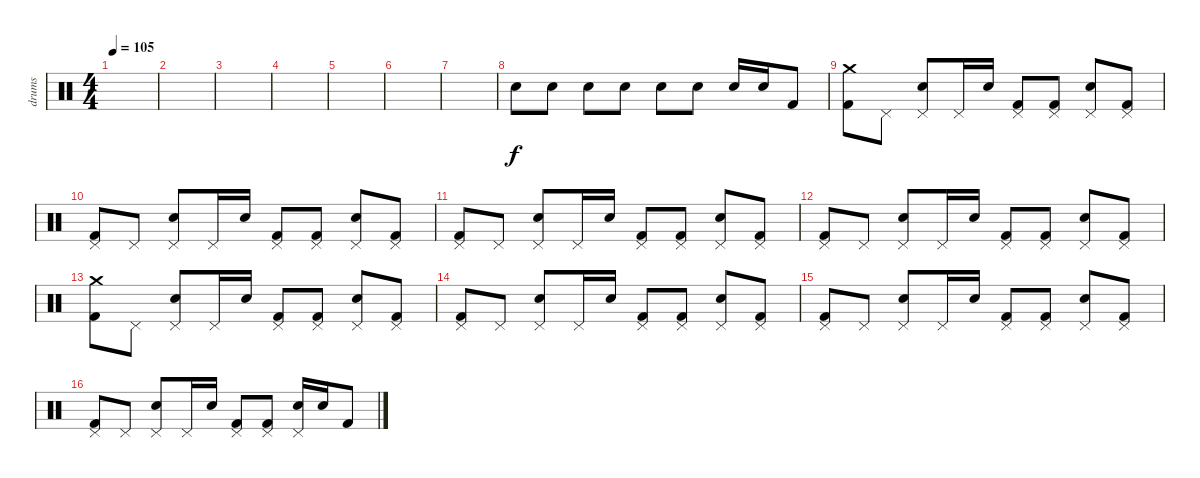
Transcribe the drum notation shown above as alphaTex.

\track ("drums" "drums") {instrument percussion}
\staff {score}
\articulation defaults
\ts (4 4)
\tempo 105
\clef neutral
\ks c
|
|
|
|
|
|
|
"Electric Snare (hit)".8 "Electric Snare (hit)".8 "Electric Snare (hit)".8 "Electric Snare (hit)".8 "Electric Snare (hit)".8 "Electric Snare (hit)".8 "Electric Snare (hit)".16 "Electric Snare (hit)".16 "Kick (hit) 2".8 |
("Crash medium (hit)" "Kick (hit) 2").8 "Pedal Hi-Hat (hit)".8 ("Pedal Hi-Hat (hit)" "Electric Snare (hit)").8 "Pedal Hi-Hat (hit)".16 "Electric Snare (hit)".16 ("Pedal Hi-Hat (hit)" "Kick (hit) 2").8 ("Pedal Hi-Hat (hit)" "Kick (hit) 2").8 ("Pedal Hi-Hat (hit)" "Electric Snare (hit)").8 ("Pedal Hi-Hat (hit)" "Kick (hit) 2").8 |
("Pedal Hi-Hat (hit)" "Kick (hit) 2").8 "Pedal Hi-Hat (hit)".8 ("Pedal Hi-Hat (hit)" "Electric Snare (hit)").8 "Pedal Hi-Hat (hit)".16 "Electric Snare (hit)".16 ("Pedal Hi-Hat (hit)" "Kick (hit) 2").8 ("Pedal Hi-Hat (hit)" "Kick (hit) 2").8 ("Pedal Hi-Hat (hit)" "Electric Snare (hit)").8 ("Pedal Hi-Hat (hit)" "Kick (hit) 2").8 |
("Pedal Hi-Hat (hit)" "Kick (hit) 2").8 "Pedal Hi-Hat (hit)".8 ("Pedal Hi-Hat (hit)" "Electric Snare (hit)").8 "Pedal Hi-Hat (hit)".16 "Electric Snare (hit)".16 ("Pedal Hi-Hat (hit)" "Kick (hit) 2").8 ("Pedal Hi-Hat (hit)" "Kick (hit) 2").8 ("Pedal Hi-Hat (hit)" "Electric Snare (hit)").8 ("Pedal Hi-Hat (hit)" "Kick (hit) 2").8 |
("Pedal Hi-Hat (hit)" "Kick (hit) 2").8 "Pedal Hi-Hat (hit)".8 ("Pedal Hi-Hat (hit)" "Electric Snare (hit)").8 "Pedal Hi-Hat (hit)".16 "Electric Snare (hit)".16 ("Pedal Hi-Hat (hit)" "Kick (hit) 2").8 ("Pedal Hi-Hat (hit)" "Kick (hit) 2").8 ("Pedal Hi-Hat (hit)" "Electric Snare (hit)").8 ("Pedal Hi-Hat (hit)" "Kick (hit) 2").8 |
("Crash medium (hit)" "Kick (hit) 2").8 "Pedal Hi-Hat (hit)".8 ("Pedal Hi-Hat (hit)" "Electric Snare (hit)").8 "Pedal Hi-Hat (hit)".16 "Electric Snare (hit)".16 ("Pedal Hi-Hat (hit)" "Kick (hit) 2").8 ("Pedal Hi-Hat (hit)" "Kick (hit) 2").8 ("Pedal Hi-Hat (hit)" "Electric Snare (hit)").8 ("Pedal Hi-Hat (hit)" "Kick (hit) 2").8 |
("Pedal Hi-Hat (hit)" "Kick (hit) 2").8 "Pedal Hi-Hat (hit)".8 ("Pedal Hi-Hat (hit)" "Electric Snare (hit)").8 "Pedal Hi-Hat (hit)".16 "Electric Snare (hit)".16 ("Pedal Hi-Hat (hit)" "Kick (hit) 2").8 ("Pedal Hi-Hat (hit)" "Kick (hit) 2").8 ("Pedal Hi-Hat (hit)" "Electric Snare (hit)").8 ("Pedal Hi-Hat (hit)" "Kick (hit) 2").8 |
("Pedal Hi-Hat (hit)" "Kick (hit) 2").8 "Pedal Hi-Hat (hit)".8 ("Pedal Hi-Hat (hit)" "Electric Snare (hit)").8 "Pedal Hi-Hat (hit)".16 "Electric Snare (hit)".16 ("Pedal Hi-Hat (hit)" "Kick (hit) 2").8 ("Pedal Hi-Hat (hit)" "Kick (hit) 2").8 ("Pedal Hi-Hat (hit)" "Electric Snare (hit)").8 ("Pedal Hi-Hat (hit)" "Kick (hit) 2").8 |
("Pedal Hi-Hat (hit)" "Kick (hit) 2").8 "Pedal Hi-Hat (hit)".8 ("Pedal Hi-Hat (hit)" "Electric Snare (hit)").8 "Pedal Hi-Hat (hit)".16 "Electric Snare (hit)".16 ("Pedal Hi-Hat (hit)" "Kick (hit) 2").8 ("Pedal Hi-Hat (hit)" "Kick (hit) 2").8 ("Pedal Hi-Hat (hit)" "Electric Snare (hit)").16 "Electric Snare (hit)".16 "Kick (hit) 2".8
